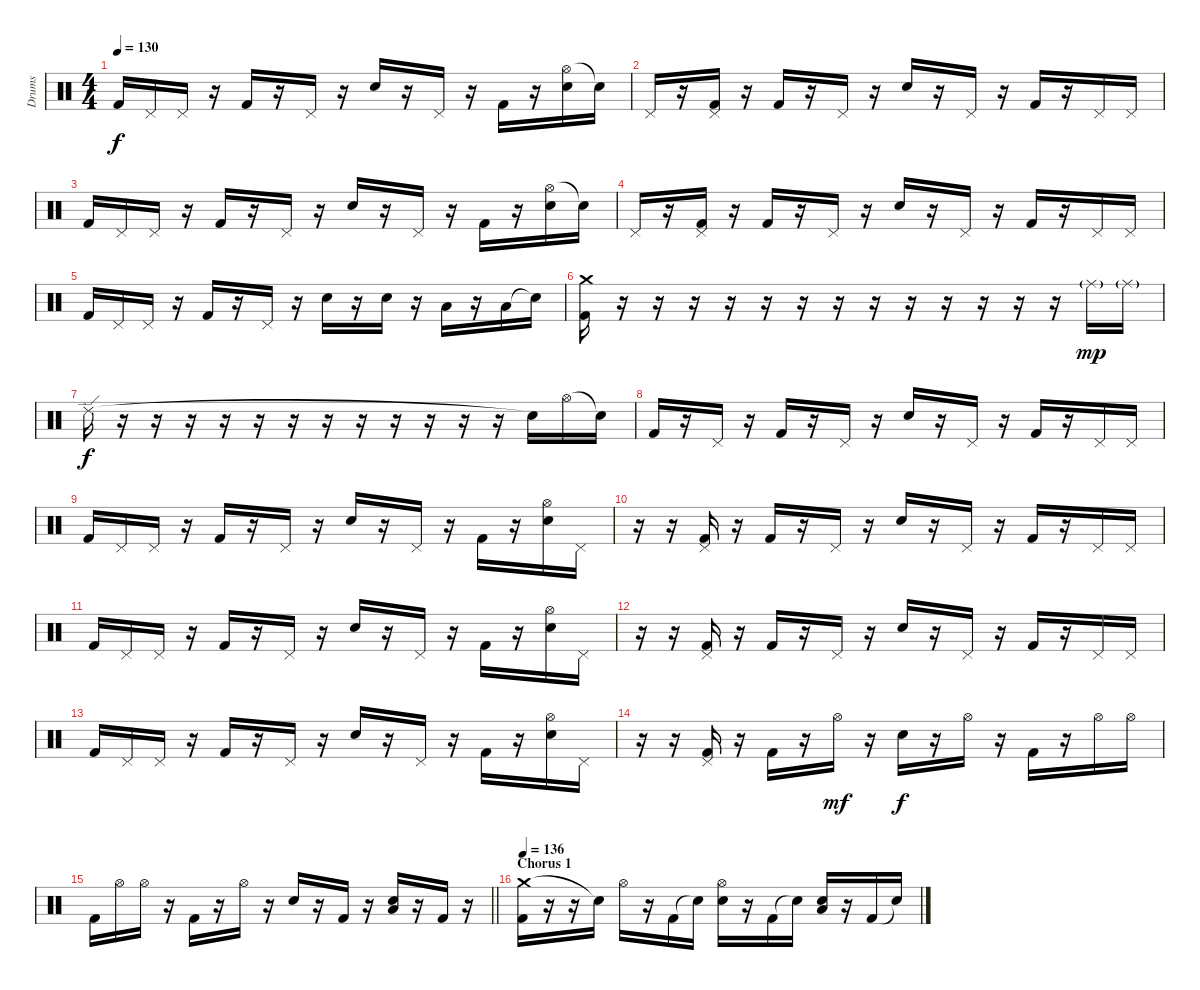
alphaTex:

\track ("Drums" "Drums") {instrument percussion}
\staff {score}
\articulation defaults
\ts (4 4)
\tempo 130
\clef neutral
\ks c "Kick (hit) 2".16{dy f} "Pedal Hi-Hat (hit)".16 "Pedal Hi-Hat (hit)".16
r.16 "Kick (hit) 2".16 r.16 "Pedal Hi-Hat (hit)".16 r.16 "Electric Snare (hit)".16 r.16 "Pedal Hi-Hat (hit)".16 r.16 "Kick (hit) 2".16 r.16 ("Hi-Hat (open)" "Electric Snare (hit)").16 "Snare (hit)"{t}.16 |
"Pedal Hi-Hat (hit)".16 r.16 ("Pedal Hi-Hat (hit)" "Kick (hit) 2").16 r.16 "Kick (hit) 2".16 r.16 "Pedal Hi-Hat (hit)".16 r.16 "Electric Snare (hit)".16 r.16 "Pedal Hi-Hat (hit)".16 r.16 "Kick (hit) 2".16 r.16 "Pedal Hi-Hat (hit)".16 "Pedal Hi-Hat (hit)".16 |
"Kick (hit) 2".16 "Pedal Hi-Hat (hit)".16 "Pedal Hi-Hat (hit)".16 r.16 "Kick (hit) 2".16 r.16 "Pedal Hi-Hat (hit)".16 r.16 "Electric Snare (hit)".16 r.16 "Pedal Hi-Hat (hit)".16 r.16 "Kick (hit) 2".16 r.16 ("Hi-Hat (open)" "Electric Snare (hit)").16 "Snare (hit)"{t}.16 |
"Pedal Hi-Hat (hit)".16 r.16 ("Pedal Hi-Hat (hit)" "Kick (hit) 2").16 r.16 "Kick (hit) 2".16 r.16 "Pedal Hi-Hat (hit)".16 r.16 "Electric Snare (hit)".16 r.16 "Pedal Hi-Hat (hit)".16 r.16 "Kick (hit) 2".16 r.16 "Pedal Hi-Hat (hit)".16 "Pedal Hi-Hat (hit)".16 |
"Kick (hit) 2".16 "Pedal Hi-Hat (hit)".16 "Pedal Hi-Hat (hit)".16 r.16 "Kick (hit) 2".16 r.16 "Pedal Hi-Hat (hit)".16 r.16 "Electric Snare (hit)".16 r.16 "Electric Snare (hit)".16 r.16 "Low Tom (hit)".16 r.16 "Low Floor Tom (hit)".16 "Snare (hit)"{t}.16 |
("Crash medium (hit)" "Kick (hit) 2").16 r.16 r.16 r.16 r.16 r.16 r.16 r.16 r.16 r.16 r.16 r.16 r.16 r.16 "Ride (middle)"{g}.16{dy mp} "Ride (middle)"{g}.16 |
"Ride (edge) 2".16{dy f} r.16 r.16 r.16 r.16 r.16 r.16 r.16 r.16 r.16 r.16 r.16 r.16 "Snare (hit)"{t}.16 "Hi-Hat (open)".16 "Snare (hit)"{t}.16 |
"Kick (hit) 2".16 r.16 "Pedal Hi-Hat (hit)".16 r.16 "Kick (hit) 2".16 r.16 "Pedal Hi-Hat (hit)".16 r.16 "Electric Snare (hit)".16 r.16 "Pedal Hi-Hat (hit)".16 r.16 "Kick (hit) 2".16 r.16 "Pedal Hi-Hat (hit)".16 "Pedal Hi-Hat (hit)".16 |
"Kick (hit) 2".16 "Pedal Hi-Hat (hit)".16 "Pedal Hi-Hat (hit)".16 r.16 "Kick (hit) 2".16 r.16 "Pedal Hi-Hat (hit)".16 r.16 "Electric Snare (hit)".16 r.16 "Pedal Hi-Hat (hit)".16 r.16 "Kick (hit) 2".16 r.16 ("Hi-Hat (open)" "Electric Snare (hit)").16 "Pedal Hi-Hat (hit)".16 |
r.16 r.16 ("Pedal Hi-Hat (hit)" "Kick (hit) 2").16 r.16 "Kick (hit) 2".16 r.16 "Pedal Hi-Hat (hit)".16 r.16 "Electric Snare (hit)".16 r.16 "Pedal Hi-Hat (hit)".16 r.16 "Kick (hit) 2".16 r.16 "Pedal Hi-Hat (hit)".16 "Pedal Hi-Hat (hit)".16 |
"Kick (hit) 2".16 "Pedal Hi-Hat (hit)".16 "Pedal Hi-Hat (hit)".16 r.16 "Kick (hit) 2".16 r.16 "Pedal Hi-Hat (hit)".16 r.16 "Electric Snare (hit)".16 r.16 "Pedal Hi-Hat (hit)".16 r.16 "Kick (hit) 2".16 r.16 ("Hi-Hat (open)" "Electric Snare (hit)").16 "Pedal Hi-Hat (hit)".16 |
r.16 r.16 ("Pedal Hi-Hat (hit)" "Kick (hit) 2").16 r.16 "Kick (hit) 2".16 r.16 "Pedal Hi-Hat (hit)".16 r.16 "Electric Snare (hit)".16 r.16 "Pedal Hi-Hat (hit)".16 r.16 "Kick (hit) 2".16 r.16 "Pedal Hi-Hat (hit)".16 "Pedal Hi-Hat (hit)".16 |
"Kick (hit) 2".16 "Pedal Hi-Hat (hit)".16 "Pedal Hi-Hat (hit)".16 r.16 "Kick (hit) 2".16 r.16 "Pedal Hi-Hat (hit)".16 r.16 "Electric Snare (hit)".16 r.16 "Pedal Hi-Hat (hit)".16 r.16 "Kick (hit) 2".16 r.16 ("Hi-Hat (open)" "Electric Snare (hit)").16 "Pedal Hi-Hat (hit)".16 |
r.16 r.16 ("Pedal Hi-Hat (hit)" "Kick (hit) 2").16 r.16 "Kick (hit) 2".16 r.16 "Hi-Hat (open)".16{dy mf} r.16 "Electric Snare (hit)".16{dy f} r.16 "Hi-Hat (open)".16 r.16 "Kick (hit) 2".16 r.16 "Hi-Hat (open)".16 "Hi-Hat (open)".16 |
\barLineRight lightlight "Kick (hit) 2".16 "Hi-Hat (open)".16 "Hi-Hat (open)".16
r.16 "Kick (hit) 2".16 r.16 "Hi-Hat (open)".16 r.16 "Electric Snare (hit)".16 r.16 "Kick (hit) 2".16 r.16 ("Low Floor Tom (hit)" "Electric Snare (hit)").16 r.16 "Kick (hit) 2".16 r.16 |
\section ("" "Chorus 1")
\tempo 136
("Crash medium (hit)" "Kick (hit) 2").16 r.16 r.16 "Snare (hit)"{t}.16 "Hi-Hat (open)".16 r.16 "Kick (hit) 2".16 "Snare (hit)"{t}.16 ("Hi-Hat (open)" "Electric Snare (hit)").16 r.16 "Kick (hit) 2".16 "Snare (hit)"{t}.16 ("Low Floor Tom (hit)" "Electric Snare (hit)").16 r.16 "Kick (hit) 2".16 "Snare (hit)"{t}.16
